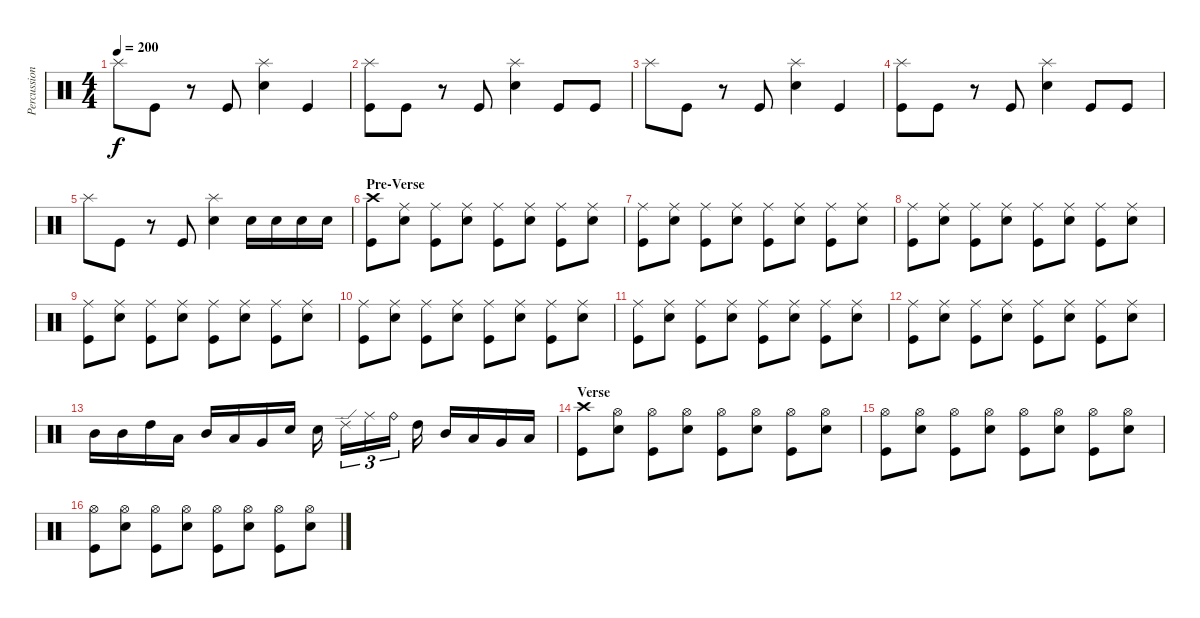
\track ("Percussion" "Percussion") {instrument percussion}
\staff {score}
\articulation defaults
\ts (4 4)
\tempo 200
\clef neutral
\ks c "Splash (hit)".8{dy f} "Kick (hit)".8
r.8 "Kick (hit)".8 ("Splash (hit)" "Electric Snare (hit)").4 "Kick (hit)".4 |
("Splash (hit)" "Kick (hit)").8 "Kick (hit)".8 r.8 "Kick (hit)".8 ("Splash (hit)" "Electric Snare (hit)").4 "Kick (hit)".8 "Kick (hit)".8 |
"Splash (hit)".8 "Kick (hit)".8 r.8 "Kick (hit)".8 ("Splash (hit)" "Electric Snare (hit)").4 "Kick (hit)".4 |
("Splash (hit)" "Kick (hit)").8 "Kick (hit)".8 r.8 "Kick (hit)".8 ("Splash (hit)" "Electric Snare (hit)").4 "Kick (hit)".8 "Kick (hit)".8 |
"Splash (hit)".8 "Kick (hit)".8 r.8 "Kick (hit)".8 ("Splash (hit)" "Electric Snare (hit)").4 "Electric Snare (hit)".16 "Electric Snare (hit)".16 "Electric Snare (hit)".16 "Electric Snare (hit)".16 |
\section ("" "Pre-Verse")
("Crash high (hit)" "Kick (hit)").8 ("Ride (middle)" "Electric Snare (hit)").8 ("Ride (middle)" "Kick (hit)").8 ("Ride (middle)" "Electric Snare (hit)").8 ("Ride (middle)" "Kick (hit)").8 ("Ride (middle)" "Electric Snare (hit)").8 ("Ride (middle)" "Kick (hit)").8 ("Ride (middle)" "Electric Snare (hit)").8 |
("Ride (middle)" "Kick (hit)").8 ("Ride (middle)" "Electric Snare (hit)").8 ("Ride (middle)" "Kick (hit)").8 ("Ride (middle)" "Electric Snare (hit)").8 ("Ride (middle)" "Kick (hit)").8 ("Ride (middle)" "Electric Snare (hit)").8 ("Ride (middle)" "Kick (hit)").8 ("Ride (middle)" "Electric Snare (hit)").8 |
("Ride (middle)" "Kick (hit)").8 ("Ride (middle)" "Electric Snare (hit)").8 ("Ride (middle)" "Kick (hit)").8 ("Ride (middle)" "Electric Snare (hit)").8 ("Ride (middle)" "Kick (hit)").8 ("Ride (middle)" "Electric Snare (hit)").8 ("Ride (middle)" "Kick (hit)").8 ("Ride (middle)" "Electric Snare (hit)").8 |
("Ride (middle)" "Kick (hit)").8 ("Ride (middle)" "Electric Snare (hit)").8 ("Ride (middle)" "Kick (hit)").8 ("Ride (middle)" "Electric Snare (hit)").8 ("Ride (middle)" "Kick (hit)").8 ("Ride (middle)" "Electric Snare (hit)").8 ("Ride (middle)" "Kick (hit)").8 ("Ride (middle)" "Electric Snare (hit)").8 |
("Ride (middle)" "Kick (hit)").8 ("Ride (middle)" "Electric Snare (hit)").8 ("Ride (middle)" "Kick (hit)").8 ("Ride (middle)" "Electric Snare (hit)").8 ("Ride (middle)" "Kick (hit)").8 ("Ride (middle)" "Electric Snare (hit)").8 ("Ride (middle)" "Kick (hit)").8 ("Ride (middle)" "Electric Snare (hit)").8 |
("Ride (middle)" "Kick (hit)").8 ("Ride (middle)" "Electric Snare (hit)").8 ("Ride (middle)" "Kick (hit)").8 ("Ride (middle)" "Electric Snare (hit)").8 ("Ride (middle)" "Kick (hit)").8 ("Ride (middle)" "Electric Snare (hit)").8 ("Ride (middle)" "Kick (hit)").8 ("Ride (middle)" "Electric Snare (hit)").8 |
("Ride (middle)" "Kick (hit)").8 ("Ride (middle)" "Electric Snare (hit)").8 ("Ride (middle)" "Kick (hit)").8 ("Ride (middle)" "Electric Snare (hit)").8 ("Ride (middle)" "Kick (hit)").8 ("Ride (middle)" "Electric Snare (hit)").8 ("Ride (middle)" "Kick (hit)").8 ("Ride (middle)" "Electric Snare (hit)").8 |
"Mid Tom (hit)".16 "Mid Tom (hit)".16 "High Tom (hit)".16 "Low Tom (hit)".16 "Mid Tom (hit)".16 "Low Tom (hit)".16 "Very Low Tom (hit)".16 "Electric Snare (hit)".16 "Electric Snare (hit)".16 "Ride (edge) 2".16{tu (3 2)} "Ride (middle)".16{tu (3 2)} "Ride (bell)".16{tu (3 2)} "High Tom (hit)".16 "Mid Tom (hit)".16 "Low Tom (hit)".16 "Very Low Tom (hit)".16 "Low Floor Tom (hit)".16 |
\section ("" "Verse")
("Crash high (hit)" "Kick (hit)").8 ("Hi-Hat (open)" "Electric Snare (hit)").8 ("Hi-Hat (open)" "Kick (hit)").8 ("Hi-Hat (open)" "Electric Snare (hit)").8 ("Hi-Hat (open)" "Kick (hit)").8 ("Hi-Hat (open)" "Electric Snare (hit)").8 ("Hi-Hat (open)" "Kick (hit)").8 ("Hi-Hat (open)" "Electric Snare (hit)").8 |
("Hi-Hat (open)" "Kick (hit)").8 ("Hi-Hat (open)" "Electric Snare (hit)").8 ("Hi-Hat (open)" "Kick (hit)").8 ("Hi-Hat (open)" "Electric Snare (hit)").8 ("Hi-Hat (open)" "Kick (hit)").8 ("Hi-Hat (open)" "Electric Snare (hit)").8 ("Hi-Hat (open)" "Kick (hit)").8 ("Hi-Hat (open)" "Electric Snare (hit)").8 |
("Hi-Hat (open)" "Kick (hit)").8 ("Hi-Hat (open)" "Electric Snare (hit)").8 ("Hi-Hat (open)" "Kick (hit)").8 ("Hi-Hat (open)" "Electric Snare (hit)").8 ("Hi-Hat (open)" "Kick (hit)").8 ("Hi-Hat (open)" "Electric Snare (hit)").8 ("Hi-Hat (open)" "Kick (hit)").8 ("Hi-Hat (open)" "Electric Snare (hit)").8
